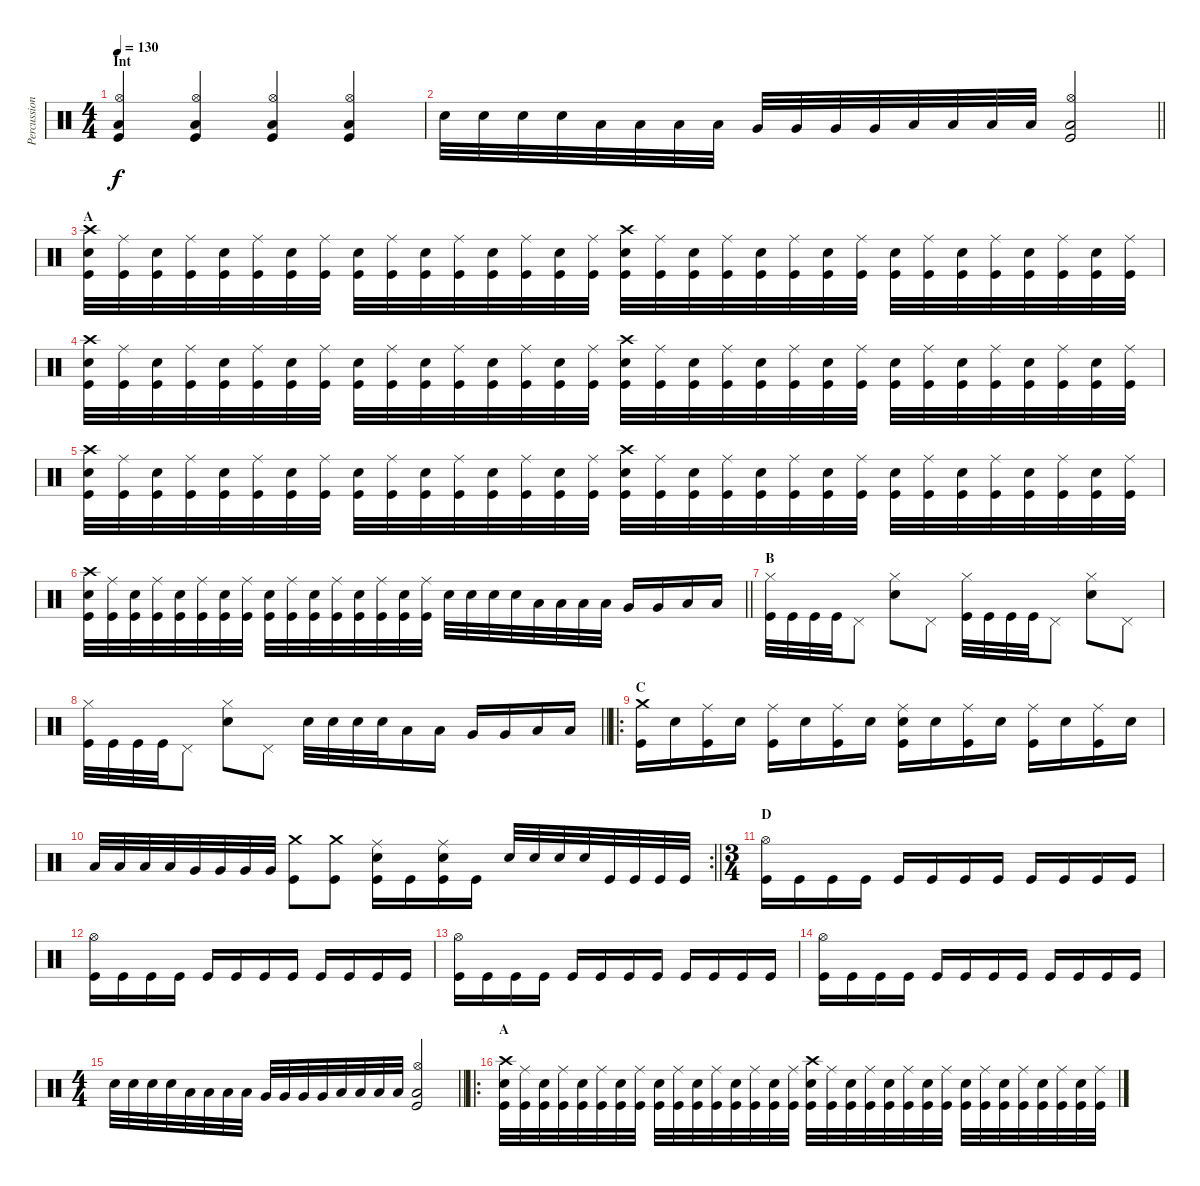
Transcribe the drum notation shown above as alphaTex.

\track ("Percussion" "Percussion") {instrument percussion}
\staff {score}
\articulation defaults
\ts (4 4)
\section ("" "Int")
\tempo 130
\clef neutral
\ks c
("Kick (hit)" "Hi-Hat (open)" "Low Floor Tom (hit)").4{dy f} ("Kick (hit)" "Hi-Hat (open)" "Low Floor Tom (hit)").4 ("Kick (hit)" "Hi-Hat (open)" "Low Floor Tom (hit)").4 ("Kick (hit)" "Hi-Hat (open)" "Low Floor Tom (hit)").4 |
\barLineRight lightlight "Snare (hit) 2".32 "Snare (hit) 2".32 "Snare (hit) 2".32 "Snare (hit) 2".32 "Low Tom (hit)".32 "Low Tom (hit)".32 "Low Tom (hit)".32 "Low Tom (hit)".32 "Very Low Tom (hit)".32 "Very Low Tom (hit)".32 "Very Low Tom (hit)".32 "Very Low Tom (hit)".32 "Low Floor Tom (hit)".32 "Low Floor Tom (hit)".32 "Low Floor Tom (hit)".32 "Low Floor Tom (hit)".32
("Kick (hit)" "Low Floor Tom (hit)" "Hi-Hat (open)").2 |
\section ("" "A")
("Kick (hit)" "Crash high (hit)" "Snare (hit) 2").32 ("Kick (hit)" "Ride (middle)").32 ("Kick (hit)" "Snare (hit) 2").32 ("Kick (hit)" "Ride (middle)").32 ("Kick (hit)" "Snare (hit) 2").32 ("Kick (hit)" "Ride (middle)").32 ("Kick (hit)" "Snare (hit) 2").32 ("Kick (hit)" "Ride (middle)").32 ("Kick (hit)" "Snare (hit) 2").32 ("Kick (hit)" "Ride (middle)").32 ("Kick (hit)" "Snare (hit) 2").32 ("Kick (hit)" "Ride (middle)").32 ("Kick (hit)" "Snare (hit) 2").32 ("Kick (hit)" "Ride (middle)").32 ("Kick (hit)" "Snare (hit) 2").32 ("Kick (hit)" "Ride (middle)").32 ("Kick (hit)" "Crash high (hit)" "Snare (hit) 2").32 ("Kick (hit)" "Ride (middle)").32 ("Kick (hit)" "Snare (hit) 2").32 ("Kick (hit)" "Ride (middle)").32 ("Kick (hit)" "Snare (hit) 2").32 ("Kick (hit)" "Ride (middle)").32 ("Kick (hit)" "Snare (hit) 2").32 ("Kick (hit)" "Ride (middle)").32 ("Kick (hit)" "Snare (hit) 2").32 ("Kick (hit)" "Ride (middle)").32 ("Kick (hit)" "Snare (hit) 2").32 ("Kick (hit)" "Ride (middle)").32 ("Kick (hit)" "Snare (hit) 2").32 ("Kick (hit)" "Ride (middle)").32 ("Kick (hit)" "Snare (hit) 2").32 ("Kick (hit)" "Ride (middle)").32 |
("Kick (hit)" "Crash high (hit)" "Snare (hit) 2").32 ("Kick (hit)" "Ride (middle)").32 ("Kick (hit)" "Snare (hit) 2").32 ("Kick (hit)" "Ride (middle)").32 ("Kick (hit)" "Snare (hit) 2").32 ("Kick (hit)" "Ride (middle)").32 ("Kick (hit)" "Snare (hit) 2").32 ("Kick (hit)" "Ride (middle)").32 ("Kick (hit)" "Snare (hit) 2").32 ("Kick (hit)" "Ride (middle)").32 ("Kick (hit)" "Snare (hit) 2").32 ("Kick (hit)" "Ride (middle)").32 ("Kick (hit)" "Snare (hit) 2").32 ("Kick (hit)" "Ride (middle)").32 ("Kick (hit)" "Snare (hit) 2").32 ("Kick (hit)" "Ride (middle)").32 ("Kick (hit)" "Crash high (hit)" "Snare (hit) 2").32 ("Kick (hit)" "Ride (middle)").32 ("Kick (hit)" "Snare (hit) 2").32 ("Kick (hit)" "Ride (middle)").32 ("Kick (hit)" "Snare (hit) 2").32 ("Kick (hit)" "Ride (middle)").32 ("Kick (hit)" "Snare (hit) 2").32 ("Kick (hit)" "Ride (middle)").32 ("Kick (hit)" "Snare (hit) 2").32 ("Kick (hit)" "Ride (middle)").32 ("Kick (hit)" "Snare (hit) 2").32 ("Kick (hit)" "Ride (middle)").32 ("Kick (hit)" "Snare (hit) 2").32 ("Kick (hit)" "Ride (middle)").32 ("Kick (hit)" "Snare (hit) 2").32 ("Kick (hit)" "Ride (middle)").32 |
("Kick (hit)" "Crash high (hit)" "Snare (hit) 2").32 ("Kick (hit)" "Ride (middle)").32 ("Kick (hit)" "Snare (hit) 2").32 ("Kick (hit)" "Ride (middle)").32 ("Kick (hit)" "Snare (hit) 2").32 ("Kick (hit)" "Ride (middle)").32 ("Kick (hit)" "Snare (hit) 2").32 ("Kick (hit)" "Ride (middle)").32 ("Kick (hit)" "Snare (hit) 2").32 ("Kick (hit)" "Ride (middle)").32 ("Kick (hit)" "Snare (hit) 2").32 ("Kick (hit)" "Ride (middle)").32 ("Kick (hit)" "Snare (hit) 2").32 ("Kick (hit)" "Ride (middle)").32 ("Kick (hit)" "Snare (hit) 2").32 ("Kick (hit)" "Ride (middle)").32 ("Kick (hit)" "Crash high (hit)" "Snare (hit) 2").32 ("Kick (hit)" "Ride (middle)").32 ("Kick (hit)" "Snare (hit) 2").32 ("Kick (hit)" "Ride (middle)").32 ("Kick (hit)" "Snare (hit) 2").32 ("Kick (hit)" "Ride (middle)").32 ("Kick (hit)" "Snare (hit) 2").32 ("Kick (hit)" "Ride (middle)").32 ("Kick (hit)" "Snare (hit) 2").32 ("Kick (hit)" "Ride (middle)").32 ("Kick (hit)" "Snare (hit) 2").32 ("Kick (hit)" "Ride (middle)").32 ("Kick (hit)" "Snare (hit) 2").32 ("Kick (hit)" "Ride (middle)").32 ("Kick (hit)" "Snare (hit) 2").32 ("Kick (hit)" "Ride (middle)").32 |
\barLineRight lightlight
("Kick (hit)" "Crash high (hit)" "Snare (hit) 2").32 ("Kick (hit)" "Ride (middle)").32 ("Kick (hit)" "Snare (hit) 2").32 ("Kick (hit)" "Ride (middle)").32 ("Kick (hit)" "Snare (hit) 2").32 ("Kick (hit)" "Ride (middle)").32 ("Kick (hit)" "Snare (hit) 2").32 ("Kick (hit)" "Ride (middle)").32 ("Kick (hit)" "Snare (hit) 2").32 ("Kick (hit)" "Ride (middle)").32 ("Kick (hit)" "Snare (hit) 2").32 ("Kick (hit)" "Ride (middle)").32 ("Kick (hit)" "Snare (hit) 2").32 ("Kick (hit)" "Ride (middle)").32 ("Kick (hit)" "Snare (hit) 2").32 ("Kick (hit)" "Ride (middle)").32 "Snare (hit) 2".32 "Snare (hit) 2".32 "Snare (hit) 2".32 "Snare (hit) 2".32 "Low Tom (hit)".32 "Low Tom (hit)".32 "Low Tom (hit)".32 "Low Tom (hit)".32 "Very Low Tom (hit)".16 "Very Low Tom (hit)".16 "Low Floor Tom (hit)".16 "Low Floor Tom (hit)".16 |
\section ("" "B")
("Kick (hit)" "Hi-Hat (closed)").32 "Kick (hit)".32 "Kick (hit)".32 "Kick (hit)".32 "Pedal Hi-Hat (hit)".8 ("Snare (hit) 2" "Hi-Hat (closed)").8 "Pedal Hi-Hat (hit)".8 ("Kick (hit)" "Hi-Hat (closed)").32 "Kick (hit)".32 "Kick (hit)".32 "Kick (hit)".32 "Pedal Hi-Hat (hit)".8 ("Snare (hit) 2" "Hi-Hat (closed)").8 "Pedal Hi-Hat (hit)".8 |
\barLineRight lightlight
("Kick (hit)" "Hi-Hat (closed)").32 "Kick (hit)".32 "Kick (hit)".32 "Kick (hit)".32 "Pedal Hi-Hat (hit)".8 ("Snare (hit) 2" "Hi-Hat (closed)").8 "Pedal Hi-Hat (hit)".8 "Snare (hit) 2".32 "Snare (hit) 2".32 "Snare (hit) 2".32 "Snare (hit) 2".32 "Low Tom (hit)".16 "Low Tom (hit)".16 "Very Low Tom (hit)".16 "Very Low Tom (hit)".16 "Low Floor Tom (hit)".16 "Low Floor Tom (hit)".16 |
\ro
\section ("" "C")
("Kick (hit)" "Crash medium (hit)").16 "Snare (hit) 2".16 ("Kick (hit)" "Ride (middle)").16 "Snare (hit) 2".16 ("Kick (hit)" "Ride (middle)").16 "Snare (hit) 2".16 ("Kick (hit)" "Ride (middle)").16 "Snare (hit) 2".16 ("Kick (hit)" "Snare (hit) 2" "Ride (middle)").16 "Snare (hit) 2".16 ("Kick (hit)" "Ride (middle)").16 "Snare (hit) 2".16 ("Kick (hit)" "Ride (middle)").16 "Snare (hit) 2".16 ("Kick (hit)" "Ride (middle)").16 "Snare (hit) 2".16 |
\rc 2
\barLineRight lightlight "Low Tom (hit)".32 "Low Tom (hit)".32 "Low Tom (hit)".32 "Low Tom (hit)".32 "Very Low Tom (hit)".32 "Very Low Tom (hit)".32 "Very Low Tom (hit)".32 "Very Low Tom (hit)".32
("Kick (hit)" "Crash medium (hit)").8 ("Kick (hit)" "Crash medium (hit)").8 ("Kick (hit)" "Snare (hit) 2" "Ride (middle)").16 "Kick (hit)".16 ("Kick (hit)" "Snare (hit) 2" "Ride (middle)").16 "Kick (hit)".16 "Snare (hit) 2".32 "Snare (hit) 2".32 "Snare (hit) 2".32 "Snare (hit) 2".32 "Kick (hit)".32 "Kick (hit)".32 "Kick (hit)".32 "Kick (hit)".32 |
\ts (3 4)
\section ("" "D")
("Kick (hit)" "Hi-Hat (open)").16 "Kick (hit)".16 "Kick (hit)".16 "Kick (hit)".16 "Kick (hit)".16 "Kick (hit)".16 "Kick (hit)".16 "Kick (hit)".16 "Kick (hit)".16 "Kick (hit)".16 "Kick (hit)".16 "Kick (hit)".16 |
("Kick (hit)" "Hi-Hat (open)").16 "Kick (hit)".16 "Kick (hit)".16 "Kick (hit)".16 "Kick (hit)".16 "Kick (hit)".16 "Kick (hit)".16 "Kick (hit)".16 "Kick (hit)".16 "Kick (hit)".16 "Kick (hit)".16 "Kick (hit)".16 |
("Kick (hit)" "Hi-Hat (open)").16 "Kick (hit)".16 "Kick (hit)".16 "Kick (hit)".16 "Kick (hit)".16 "Kick (hit)".16 "Kick (hit)".16 "Kick (hit)".16 "Kick (hit)".16 "Kick (hit)".16 "Kick (hit)".16 "Kick (hit)".16 |
("Kick (hit)" "Hi-Hat (open)").16 "Kick (hit)".16 "Kick (hit)".16 "Kick (hit)".16 "Kick (hit)".16 "Kick (hit)".16 "Kick (hit)".16 "Kick (hit)".16 "Kick (hit)".16 "Kick (hit)".16 "Kick (hit)".16 "Kick (hit)".16 |
\ts (4 4)
\barLineRight lightlight "Snare (hit) 2".32 "Snare (hit) 2".32 "Snare (hit) 2".32 "Snare (hit) 2".32 "Low Tom (hit)".32 "Low Tom (hit)".32 "Low Tom (hit)".32 "Low Tom (hit)".32 "Very Low Tom (hit)".32 "Very Low Tom (hit)".32 "Very Low Tom (hit)".32 "Very Low Tom (hit)".32 "Low Floor Tom (hit)".32 "Low Floor Tom (hit)".32 "Low Floor Tom (hit)".32 "Low Floor Tom (hit)".32
("Kick (hit)" "Low Floor Tom (hit)" "Hi-Hat (open)").2 |
\ro
\section ("" "A")
("Kick (hit)" "Crash high (hit)" "Snare (hit) 2").32 ("Kick (hit)" "Ride (middle)").32 ("Kick (hit)" "Snare (hit) 2").32 ("Kick (hit)" "Ride (middle)").32 ("Kick (hit)" "Snare (hit) 2").32 ("Kick (hit)" "Ride (middle)").32 ("Kick (hit)" "Snare (hit) 2").32 ("Kick (hit)" "Ride (middle)").32 ("Kick (hit)" "Snare (hit) 2").32 ("Kick (hit)" "Ride (middle)").32 ("Kick (hit)" "Snare (hit) 2").32 ("Kick (hit)" "Ride (middle)").32 ("Kick (hit)" "Snare (hit) 2").32 ("Kick (hit)" "Ride (middle)").32 ("Kick (hit)" "Snare (hit) 2").32 ("Kick (hit)" "Ride (middle)").32 ("Kick (hit)" "Crash high (hit)" "Snare (hit) 2").32 ("Kick (hit)" "Ride (middle)").32 ("Kick (hit)" "Snare (hit) 2").32 ("Kick (hit)" "Ride (middle)").32 ("Kick (hit)" "Snare (hit) 2").32 ("Kick (hit)" "Ride (middle)").32 ("Kick (hit)" "Snare (hit) 2").32 ("Kick (hit)" "Ride (middle)").32 ("Kick (hit)" "Snare (hit) 2").32 ("Kick (hit)" "Ride (middle)").32 ("Kick (hit)" "Snare (hit) 2").32 ("Kick (hit)" "Ride (middle)").32 ("Kick (hit)" "Snare (hit) 2").32 ("Kick (hit)" "Ride (middle)").32 ("Kick (hit)" "Snare (hit) 2").32 ("Kick (hit)" "Ride (middle)").32
